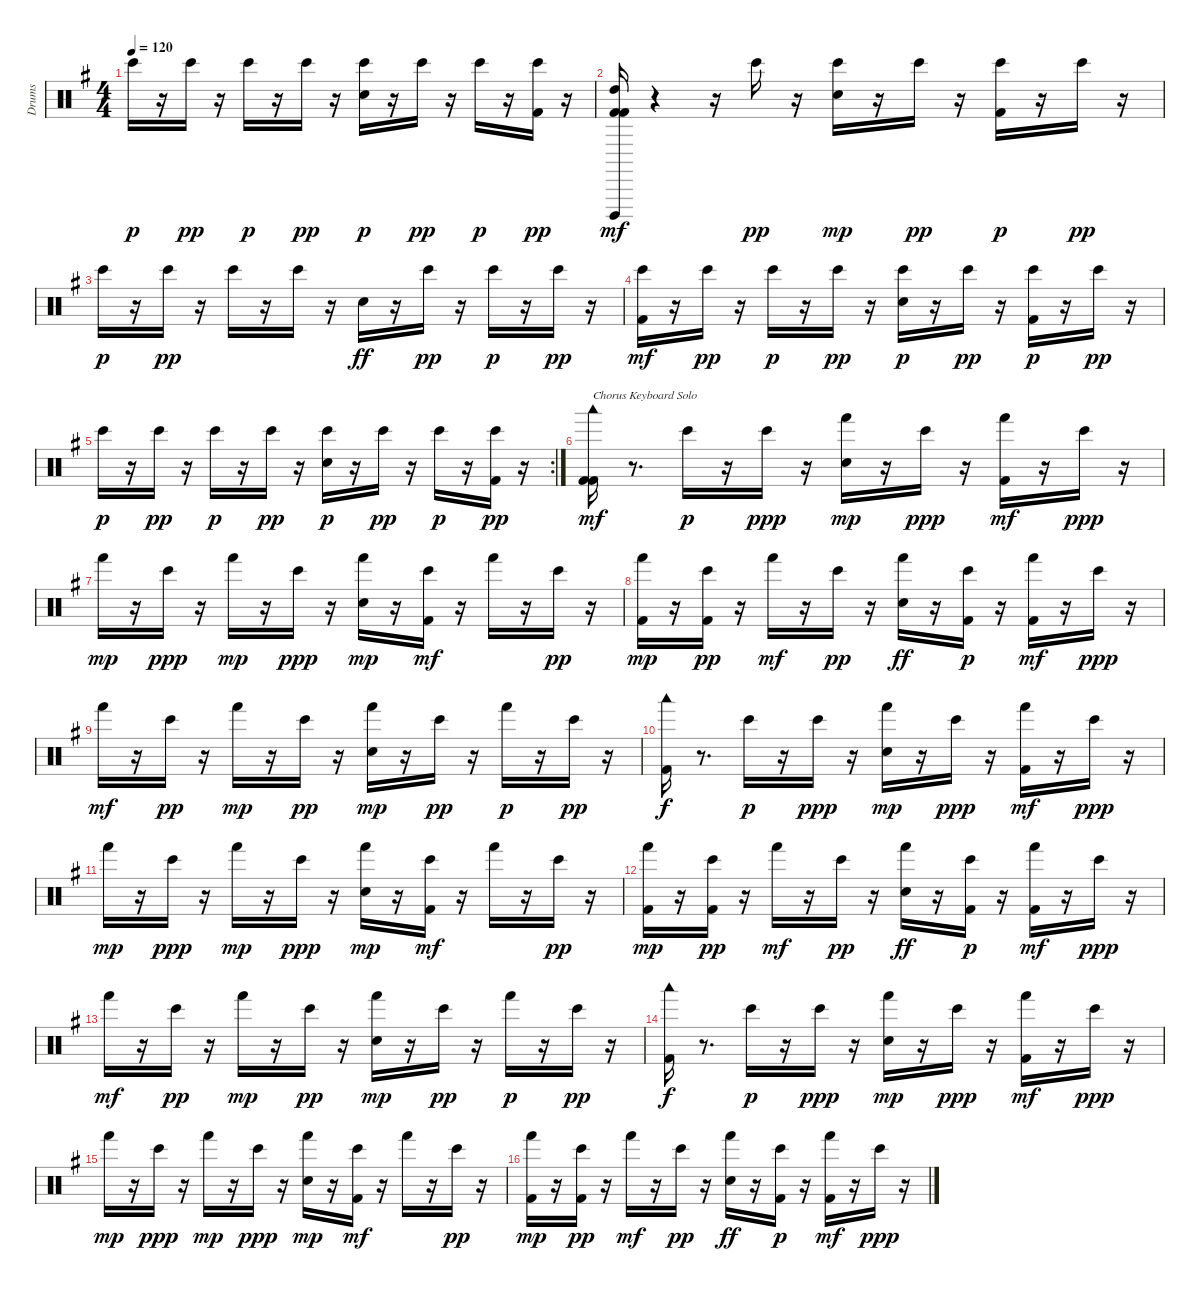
\track ("Drums" "Drums") {instrument percussion}
\staff {score}
\articulation defaults
\ts (4 4)
\tempo 120
\clef neutral
\ks g "Bongo High (hit)".16{dy p}
r.16 "Bongo High (hit)".16{dy pp} r.16 "Bongo High (hit)".16{dy p} r.16 "Bongo High (hit)".16{dy pp} r.16 ("Snare (hit) 2" "Bongo High (hit)").16{dy p} r.16 "Bongo High (hit)".16{dy pp} r.16 "Bongo High (hit)".16{dy p} r.16 ("Bongo High (hit)" "Kick (hit) 2").16{dy pp} r.16 |
("Kick (hit) 2" "Kick (hit) 2" "High Tom (hit)" "Cuica (open)").16{dy mf} r.4 r.16 "Bongo High (hit)".16{dy pp} r.16 ("Snare (hit) 2" "Bongo High (hit)").16{dy mp} r.16 "Bongo High (hit)".16{dy pp} r.16 ("Kick (hit) 2" "Bongo High (hit)").16{dy p} r.16 "Bongo High (hit)".16{dy pp} r.16 |
"Bongo High (hit)".16{dy p} r.16 "Bongo High (hit)".16{dy pp} r.16 "Bongo High (hit)".16 r.16 "Bongo High (hit)".16 r.16 "Snare (hit) 2".16{dy ff} r.16 "Bongo High (hit)".16{dy pp} r.16 "Bongo High (hit)".16{dy p} r.16 "Bongo High (hit)".16{dy pp} r.16 |
("Bongo High (hit)" "Kick (hit) 2").16{dy mf} r.16 "Bongo High (hit)".16{dy pp} r.16 "Bongo High (hit)".16{dy p} r.16 "Bongo High (hit)".16{dy pp} r.16 ("Snare (hit) 2" "Bongo High (hit)").16{dy p} r.16 "Bongo High (hit)".16{dy pp} r.16 ("Kick (hit) 2" "Bongo High (hit)").16{dy p} r.16 "Bongo High (hit)".16{dy pp} r.16 |
\rc 2 "Bongo High (hit)".16{dy p}
r.16 "Bongo High (hit)".16{dy pp} r.16 "Bongo High (hit)".16{dy p} r.16 "Bongo High (hit)".16{dy pp} r.16 ("Snare (hit) 2" "Bongo High (hit)").16{dy p} r.16 "Bongo High (hit)".16{dy pp} r.16 "Bongo High (hit)".16{dy p} r.16 ("Bongo High (hit)" "Kick (hit) 2").16{dy pp} r.16 |
("Kick (hit) 2" "Kick (hit) 2" "Woodblock low (hit)").16{txt "Chorus Keyboard Solo" dy mf} r.8{d} "Bongo High (hit)".16{dy p} r.16 "Bongo High (hit)".16{dy ppp} r.16 ("Snare (hit) 2" "Hand (hit)").16{dy mp} r.16 "Bongo High (hit)".16{dy ppp} r.16 ("Hand (hit)" "Kick (hit) 2").16{dy mf} r.16 "Bongo High (hit)".16{dy ppp} r.16 |
"Hand (hit)".16{dy mp} r.16 "Bongo High (hit)".16{dy ppp} r.16 "Hand (hit)".16{dy mp} r.16 "Bongo High (hit)".16{dy ppp} r.16 ("Snare (hit) 2" "Hand (hit)").16{dy mp} r.16 ("Bongo High (hit)" "Kick (hit) 2").16{dy mf} r.16 "Hand (hit)".16 r.16 "Bongo High (hit)".16{dy pp} r.16 |
("Kick (hit) 2" "Hand (hit)").16{dy mp} r.16 ("Kick (hit) 2" "Bongo High (hit)").16{dy pp} r.16 "Hand (hit)".16{dy mf} r.16 "Bongo High (hit)".16{dy pp} r.16 ("Hand (hit)" "Snare (hit) 2").16{dy ff} r.16 ("Bongo High (hit)" "Kick (hit) 2").16{dy p} r.16 ("Kick (hit) 2" "Hand (hit)").16{dy mf} r.16 "Bongo High (hit)".16{dy ppp} r.16 |
"Hand (hit)".16{dy mf} r.16 "Bongo High (hit)".16{dy pp} r.16 "Hand (hit)".16{dy mp} r.16 "Bongo High (hit)".16{dy pp} r.16 ("Snare (hit) 2" "Hand (hit)").16{dy mp} r.16 "Bongo High (hit)".16{dy pp} r.16 "Hand (hit)".16{dy p} r.16 "Bongo High (hit)".16{dy pp} r.16 |
("Kick (hit) 2" "Woodblock low (hit)").16{dy f} r.8{d} "Bongo High (hit)".16{dy p} r.16 "Bongo High (hit)".16{dy ppp} r.16 ("Snare (hit) 2" "Hand (hit)").16{dy mp} r.16 "Bongo High (hit)".16{dy ppp} r.16 ("Hand (hit)" "Kick (hit) 2").16{dy mf} r.16 "Bongo High (hit)".16{dy ppp} r.16 |
"Hand (hit)".16{dy mp} r.16 "Bongo High (hit)".16{dy ppp} r.16 "Hand (hit)".16{dy mp} r.16 "Bongo High (hit)".16{dy ppp} r.16 ("Snare (hit) 2" "Hand (hit)").16{dy mp} r.16 ("Bongo High (hit)" "Kick (hit) 2").16{dy mf} r.16 "Hand (hit)".16 r.16 "Bongo High (hit)".16{dy pp} r.16 |
("Kick (hit) 2" "Hand (hit)").16{dy mp} r.16 ("Kick (hit) 2" "Bongo High (hit)").16{dy pp} r.16 "Hand (hit)".16{dy mf} r.16 "Bongo High (hit)".16{dy pp} r.16 ("Hand (hit)" "Snare (hit) 2").16{dy ff} r.16 ("Bongo High (hit)" "Kick (hit) 2").16{dy p} r.16 ("Kick (hit) 2" "Hand (hit)").16{dy mf} r.16 "Bongo High (hit)".16{dy ppp} r.16 |
"Hand (hit)".16{dy mf} r.16 "Bongo High (hit)".16{dy pp} r.16 "Hand (hit)".16{dy mp} r.16 "Bongo High (hit)".16{dy pp} r.16 ("Snare (hit) 2" "Hand (hit)").16{dy mp} r.16 "Bongo High (hit)".16{dy pp} r.16 "Hand (hit)".16{dy p} r.16 "Bongo High (hit)".16{dy pp} r.16 |
("Kick (hit) 2" "Woodblock low (hit)").16{dy f} r.8{d} "Bongo High (hit)".16{dy p} r.16 "Bongo High (hit)".16{dy ppp} r.16 ("Snare (hit) 2" "Hand (hit)").16{dy mp} r.16 "Bongo High (hit)".16{dy ppp} r.16 ("Hand (hit)" "Kick (hit) 2").16{dy mf} r.16 "Bongo High (hit)".16{dy ppp} r.16 |
"Hand (hit)".16{dy mp} r.16 "Bongo High (hit)".16{dy ppp} r.16 "Hand (hit)".16{dy mp} r.16 "Bongo High (hit)".16{dy ppp} r.16 ("Snare (hit) 2" "Hand (hit)").16{dy mp} r.16 ("Bongo High (hit)" "Kick (hit) 2").16{dy mf} r.16 "Hand (hit)".16 r.16 "Bongo High (hit)".16{dy pp} r.16 |
("Kick (hit) 2" "Hand (hit)").16{dy mp} r.16 ("Kick (hit) 2" "Bongo High (hit)").16{dy pp} r.16 "Hand (hit)".16{dy mf} r.16 "Bongo High (hit)".16{dy pp} r.16 ("Hand (hit)" "Snare (hit) 2").16{dy ff} r.16 ("Bongo High (hit)" "Kick (hit) 2").16{dy p} r.16 ("Kick (hit) 2" "Hand (hit)").16{dy mf} r.16 "Bongo High (hit)".16{dy ppp} r.16
